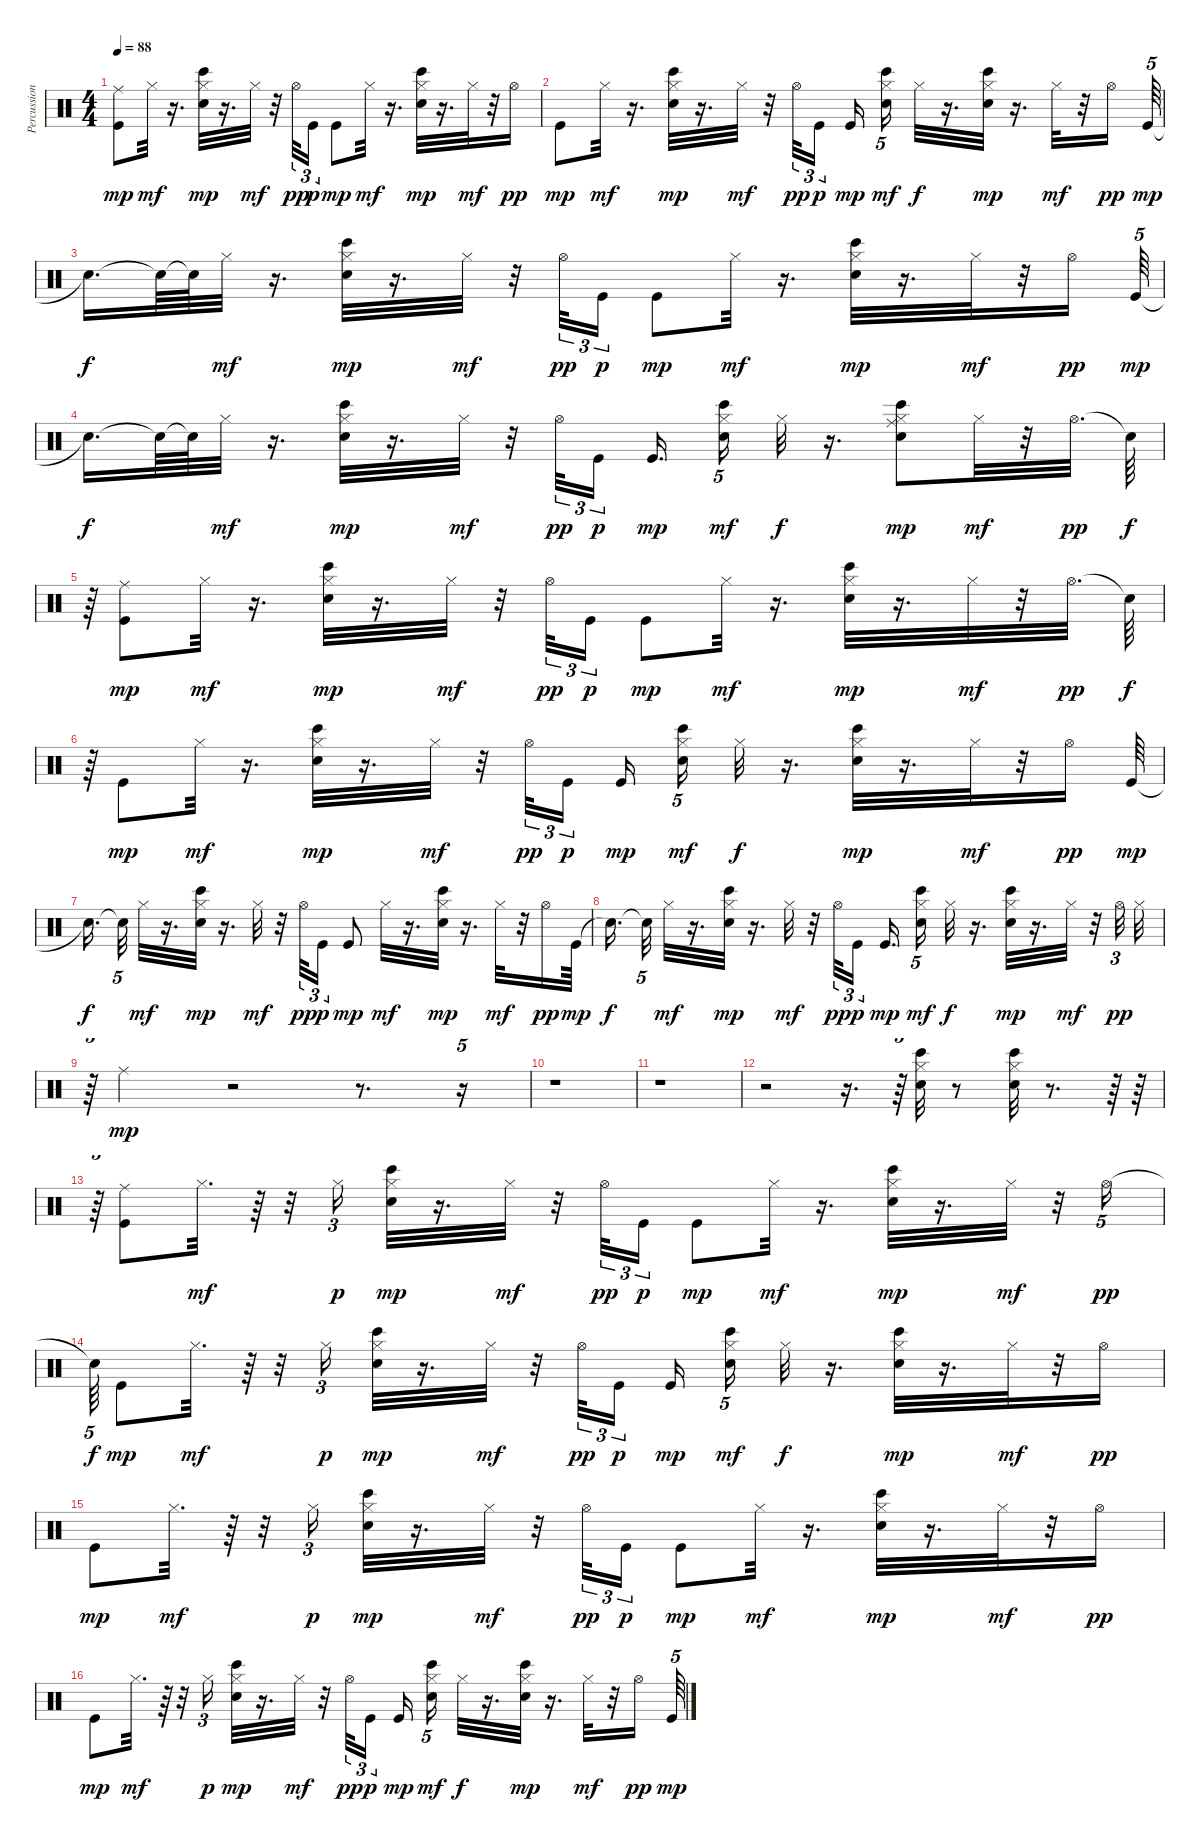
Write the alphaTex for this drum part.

\track ("Percussion" "Percussion") {instrument percussion}
\staff {score}
\articulation defaults
\ts (4 4)
\tempo 88
\clef neutral
\ks c
("Ride (middle)" "Kick (hit)").8{dy mp} "Hi-Hat (closed)".32{dy mf} r.16{d} ("Bongo High (hit)" "Hi-Hat (closed)" "Electric Snare (hit)").32{dy mp} r.16{d} "Hi-Hat (closed)".32{dy mf} r.32 "Hi-Hat (open)".32{tu (3 2) dy pp} "Kick (hit)".16{tu (3 2) dy p} "Kick (hit)".8{dy mp} "Hi-Hat (closed)".32{dy mf} r.16{d} ("Bongo High (hit)" "Hi-Hat (closed)" "Electric Snare (hit)").32{dy mp} r.16{d} "Hi-Hat (closed)".32{dy mf} r.32 "Hi-Hat (open)".16{dy pp} |
"Kick (hit)".8{dy mp} "Hi-Hat (closed)".32{dy mf} r.16{d} ("Bongo High (hit)" "Hi-Hat (closed)" "Electric Snare (hit)").32{dy mp} r.16{d} "Hi-Hat (closed)".32{dy mf} r.32 "Hi-Hat (open)".32{tu (3 2) dy pp} "Kick (hit)".16{tu (3 2) dy p} "Kick (hit)".16{dy mp} ("Bongo High (hit)" "Electric Snare (hit)" "Hi-Hat (closed)").16{tu (5 4) dy mf} "Hi-Hat (closed)".32{dy f} r.16{d} ("Bongo High (hit)" "Hi-Hat (closed)" "Electric Snare (hit)").32{dy mp} r.16{d} "Hi-Hat (closed)".32{dy mf} r.32 "Hi-Hat (open)".16{dy pp} "Kick (hit)".64{tu (5 4) dy mp} |
"Snare (hit)"{t}.16{d dy f} "Snare (hit)"{t}.64 "Snare (hit)"{t}.64 "Hi-Hat (closed)".32{dy mf} r.16{d} ("Bongo High (hit)" "Hi-Hat (closed)" "Electric Snare (hit)").32{dy mp} r.16{d} "Hi-Hat (closed)".32{dy mf} r.32 "Hi-Hat (open)".32{tu (3 2) dy pp} "Kick (hit)".16{tu (3 2) dy p} "Kick (hit)".8{dy mp} "Hi-Hat (closed)".32{dy mf} r.16{d} ("Bongo High (hit)" "Hi-Hat (closed)" "Electric Snare (hit)").32{dy mp} r.16{d} "Hi-Hat (closed)".32{dy mf} r.32 "Hi-Hat (open)".16{dy pp} "Kick (hit)".64{tu (5 4) dy mp} |
"Snare (hit)"{t}.16{d dy f} "Snare (hit)"{t}.64 "Snare (hit)"{t}.64 "Hi-Hat (closed)".32{dy mf} r.16{d} ("Bongo High (hit)" "Hi-Hat (closed)" "Electric Snare (hit)").32{dy mp} r.16{d} "Hi-Hat (closed)".32{dy mf} r.32 "Hi-Hat (open)".32{tu (3 2) dy pp} "Kick (hit)".16{tu (3 2) dy p} "Kick (hit)".16{d dy mp} ("Bongo High (hit)" "Electric Snare (hit)" "Hi-Hat (closed)").16{tu (5 4) dy mf} "Hi-Hat (closed)".32{dy f} r.16{d} ("Ride (middle)" "Bongo High (hit)" "Hi-Hat (closed)" "Electric Snare (hit)").8{dy mp} "Hi-Hat (closed)".32{dy mf} r.32 "Hi-Hat (open)".32{d dy pp} "Snare (hit)"{t}.64{dy f} |
r.64 ("Ride (middle)" "Kick (hit)").8{dy mp} "Hi-Hat (closed)".32{dy mf} r.16{d} ("Bongo High (hit)" "Hi-Hat (closed)" "Electric Snare (hit)").32{dy mp} r.16{d} "Hi-Hat (closed)".32{dy mf} r.32 "Hi-Hat (open)".32{tu (3 2) dy pp} "Kick (hit)".16{tu (3 2) dy p} "Kick (hit)".8{dy mp} "Hi-Hat (closed)".32{dy mf} r.16{d} ("Bongo High (hit)" "Hi-Hat (closed)" "Electric Snare (hit)").32{dy mp} r.16{d} "Hi-Hat (closed)".32{dy mf} r.32 "Hi-Hat (open)".32{d dy pp} "Snare (hit)"{t}.64{dy f} |
r.64 "Kick (hit)".8{dy mp} "Hi-Hat (closed)".32{dy mf} r.16{d} ("Bongo High (hit)" "Hi-Hat (closed)" "Electric Snare (hit)").32{dy mp} r.16{d} "Hi-Hat (closed)".32{dy mf} r.32 "Hi-Hat (open)".32{tu (3 2) dy pp} "Kick (hit)".16{tu (3 2) dy p} "Kick (hit)".16{dy mp} ("Bongo High (hit)" "Electric Snare (hit)" "Hi-Hat (closed)").16{tu (5 4) dy mf} "Hi-Hat (closed)".32{dy f} r.16{d} ("Bongo High (hit)" "Hi-Hat (closed)" "Electric Snare (hit)").32{dy mp} r.16{d} "Hi-Hat (closed)".32{dy mf} r.32 "Hi-Hat (open)".16{dy pp} "Kick (hit)".64{dy mp} |
"Snare (hit)"{t}.16{d dy f} "Snare (hit)"{t}.32{tu (5 4)} "Hi-Hat (closed)".32{dy mf} r.16{d} ("Bongo High (hit)" "Hi-Hat (closed)" "Electric Snare (hit)").32{dy mp} r.16{d} "Hi-Hat (closed)".32{dy mf} r.32 "Hi-Hat (open)".32{tu (3 2) dy pp} "Kick (hit)".16{tu (3 2) dy p} "Kick (hit)".8{dy mp} "Hi-Hat (closed)".32{dy mf} r.16{d} ("Bongo High (hit)" "Hi-Hat (closed)" "Electric Snare (hit)").32{dy mp} r.16{d} "Hi-Hat (closed)".32{dy mf} r.32 "Hi-Hat (open)".16{dy pp} "Kick (hit)".64{dy mp} |
"Snare (hit)"{t}.16{d dy f} "Snare (hit)"{t}.32{tu (5 4)} "Hi-Hat (closed)".32{dy mf} r.16{d} ("Bongo High (hit)" "Hi-Hat (closed)" "Electric Snare (hit)").32{dy mp} r.16{d} "Hi-Hat (closed)".32{dy mf} r.32 "Hi-Hat (open)".32{tu (3 2) dy pp} "Kick (hit)".16{tu (3 2) dy p} "Kick (hit)".16{d dy mp} ("Bongo High (hit)" "Electric Snare (hit)" "Hi-Hat (closed)").16{tu (5 4) dy mf} "Hi-Hat (closed)".32{dy f} r.16{d} ("Bongo High (hit)" "Hi-Hat (closed)" "Electric Snare (hit)").32{dy mp} r.16{d} "Hi-Hat (closed)".32{dy mf} r.32 "Hi-Hat (open)".32{tu (3 2) dy pp} "Hi-Hat (closed)".32 |
r.64{tu (5 4)} "Ride (middle)".4{dy mp} r.2 r.8{d} r.16{tu (5 4)} |
r.1 |
r.1 |
r.2 r.16{d} r.64{tu (5 4)} ("Hi-Hat (closed)" "Snare (hit) 2" "Bongo High (hit)").32 r.8 ("Bongo High (hit)" "Hi-Hat (closed)" "Snare (hit) 2").32 r.8{d} r.64 r.64 |
r.64{tu (5 4)} ("Ride (middle)" "Kick (hit)").8 "Hi-Hat (closed)".32{d dy mf} r.64 r.32 "Hi-Hat (closed)".16{tu (3 2) dy p} ("Bongo High (hit)" "Hi-Hat (closed)" "Electric Snare (hit)").32{dy mp} r.16{d} "Hi-Hat (closed)".32{dy mf} r.32 "Hi-Hat (open)".32{tu (3 2) dy pp} "Kick (hit)".16{tu (3 2) dy p} "Kick (hit)".8{dy mp} "Hi-Hat (closed)".32{dy mf} r.16{d} ("Bongo High (hit)" "Hi-Hat (closed)" "Electric Snare (hit)").32{dy mp} r.16{d} "Hi-Hat (closed)".32{dy mf} r.32 "Hi-Hat (open)".16{tu (5 4) dy pp} |
"Snare (hit)"{t}.64{tu (5 4) dy f} "Kick (hit)".8{dy mp} "Hi-Hat (closed)".32{d dy mf} r.64 r.32 "Hi-Hat (closed)".16{tu (3 2) dy p} ("Bongo High (hit)" "Hi-Hat (closed)" "Electric Snare (hit)").32{dy mp} r.16{d} "Hi-Hat (closed)".32{dy mf} r.32 "Hi-Hat (open)".32{tu (3 2) dy pp} "Kick (hit)".16{tu (3 2) dy p} "Kick (hit)".16{dy mp} ("Bongo High (hit)" "Electric Snare (hit)" "Hi-Hat (closed)").16{tu (5 4) dy mf} "Hi-Hat (closed)".32{dy f} r.16{d} ("Bongo High (hit)" "Hi-Hat (closed)" "Electric Snare (hit)").32{dy mp} r.16{d} "Hi-Hat (closed)".32{dy mf} r.32 "Hi-Hat (open)".16{dy pp} |
"Kick (hit)".8{dy mp} "Hi-Hat (closed)".32{d dy mf} r.64 r.32 "Hi-Hat (closed)".16{tu (3 2) dy p} ("Bongo High (hit)" "Hi-Hat (closed)" "Electric Snare (hit)").32{dy mp} r.16{d} "Hi-Hat (closed)".32{dy mf} r.32 "Hi-Hat (open)".32{tu (3 2) dy pp} "Kick (hit)".16{tu (3 2) dy p} "Kick (hit)".8{dy mp} "Hi-Hat (closed)".32{dy mf} r.16{d} ("Bongo High (hit)" "Hi-Hat (closed)" "Electric Snare (hit)").32{dy mp} r.16{d} "Hi-Hat (closed)".32{dy mf} r.32 "Hi-Hat (open)".16{dy pp} |
"Kick (hit)".8{dy mp} "Hi-Hat (closed)".32{d dy mf} r.64 r.32 "Hi-Hat (closed)".16{tu (3 2) dy p} ("Bongo High (hit)" "Hi-Hat (closed)" "Electric Snare (hit)").32{dy mp} r.16{d} "Hi-Hat (closed)".32{dy mf} r.32 "Hi-Hat (open)".32{tu (3 2) dy pp} "Kick (hit)".16{tu (3 2) dy p} "Kick (hit)".16{dy mp} ("Bongo High (hit)" "Electric Snare (hit)" "Hi-Hat (closed)").16{tu (5 4) dy mf} "Hi-Hat (closed)".32{dy f} r.16{d} ("Bongo High (hit)" "Hi-Hat (closed)" "Electric Snare (hit)").32{dy mp} r.16{d} "Hi-Hat (closed)".32{dy mf} r.32 "Hi-Hat (open)".16{dy pp} "Kick (hit)".64{tu (5 4) dy mp}
